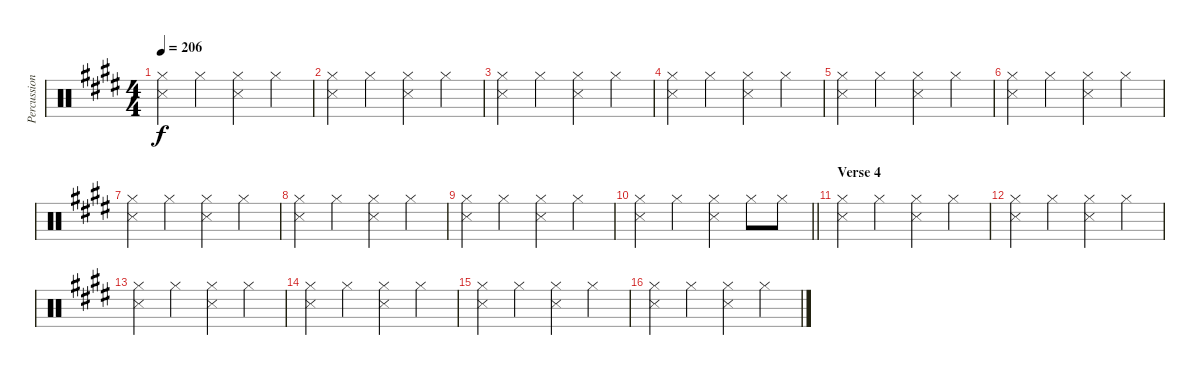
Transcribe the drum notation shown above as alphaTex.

\track ("Percussion" "Percussion") {instrument percussion}
\staff {score}
\articulation defaults
\ts (4 4)
\tempo 206
\clef neutral
\ks e
("Hi-Hat (closed)" "Snare (side stick) 3").4{dy f} "Hi-Hat (closed)".4 ("Hi-Hat (closed)" "Snare (side stick) 3").4 "Hi-Hat (closed)".4 |
("Hi-Hat (closed)" "Snare (side stick) 3").4 "Hi-Hat (closed)".4 ("Hi-Hat (closed)" "Snare (side stick) 3").4 "Hi-Hat (closed)".4 |
("Hi-Hat (closed)" "Snare (side stick) 3").4 "Hi-Hat (closed)".4 ("Hi-Hat (closed)" "Snare (side stick) 3").4 "Hi-Hat (closed)".4 |
("Hi-Hat (closed)" "Snare (side stick) 3").4 "Hi-Hat (closed)".4 ("Hi-Hat (closed)" "Snare (side stick) 3").4 "Hi-Hat (closed)".4 |
("Hi-Hat (closed)" "Snare (side stick) 3").4 "Hi-Hat (closed)".4 ("Hi-Hat (closed)" "Snare (side stick) 3").4 "Hi-Hat (closed)".4 |
("Hi-Hat (closed)" "Snare (side stick) 3").4 "Hi-Hat (closed)".4 ("Hi-Hat (closed)" "Snare (side stick) 3").4 "Hi-Hat (closed)".4 |
("Hi-Hat (closed)" "Snare (side stick) 3").4 "Hi-Hat (closed)".4 ("Hi-Hat (closed)" "Snare (side stick) 3").4 "Hi-Hat (closed)".4 |
("Hi-Hat (closed)" "Snare (side stick) 3").4 "Hi-Hat (closed)".4 ("Hi-Hat (closed)" "Snare (side stick) 3").4 "Hi-Hat (closed)".4 |
("Hi-Hat (closed)" "Snare (side stick) 3").4 "Hi-Hat (closed)".4 ("Hi-Hat (closed)" "Snare (side stick) 3").4 "Hi-Hat (closed)".4 |
\barLineRight lightlight
("Hi-Hat (closed)" "Snare (side stick) 3").4 "Hi-Hat (closed)".4 ("Hi-Hat (closed)" "Snare (side stick) 3").4 "Hi-Hat (closed)".8 "Hi-Hat (closed)".8 |
\section ("" "Verse 4")
("Hi-Hat (closed)" "Snare (side stick) 3").4 "Hi-Hat (closed)".4 ("Hi-Hat (closed)" "Snare (side stick) 3").4 "Hi-Hat (closed)".4 |
("Hi-Hat (closed)" "Snare (side stick) 3").4 "Hi-Hat (closed)".4 ("Hi-Hat (closed)" "Snare (side stick) 3").4 "Hi-Hat (closed)".4 |
("Hi-Hat (closed)" "Snare (side stick) 3").4 "Hi-Hat (closed)".4 ("Hi-Hat (closed)" "Snare (side stick) 3").4 "Hi-Hat (closed)".4 |
("Hi-Hat (closed)" "Snare (side stick) 3").4 "Hi-Hat (closed)".4 ("Hi-Hat (closed)" "Snare (side stick) 3").4 "Hi-Hat (closed)".4 |
("Hi-Hat (closed)" "Snare (side stick) 3").4 "Hi-Hat (closed)".4 ("Hi-Hat (closed)" "Snare (side stick) 3").4 "Hi-Hat (closed)".4 |
("Hi-Hat (closed)" "Snare (side stick) 3").4 "Hi-Hat (closed)".4 ("Hi-Hat (closed)" "Snare (side stick) 3").4 "Hi-Hat (closed)".4
